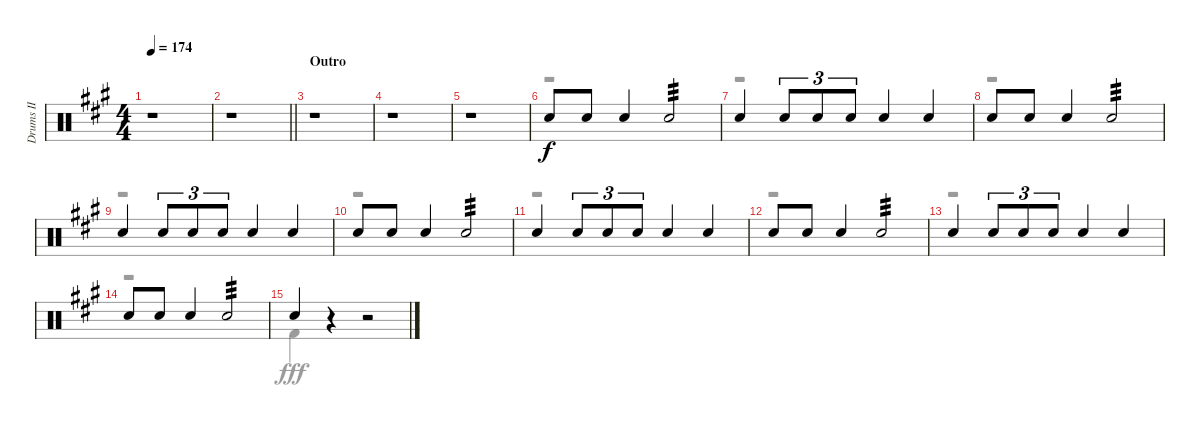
\track ("Drums II" "Drums II") {instrument percussion}
\staff {score}
\articulation defaults
\voice
\ts (4 4)
\tempo 174
\clef neutral
\ks a
r.1{dy f} |
\barLineRight lightlight
r.1 |
\section ("" "Outro")
r.1 |
r.1 |
r.1{volume 0} |
"Electric Snare (hit)".8{volume 14} "Electric Snare (hit)".8 "Electric Snare (hit)".4 "Electric Snare (hit)".2{tp 3} |
"Electric Snare (hit)".4 "Electric Snare (hit)".8{tu (3 2)} "Electric Snare (hit)".8{tu (3 2)} "Electric Snare (hit)".8{tu (3 2)} "Electric Snare (hit)".4 "Electric Snare (hit)".4 |
"Electric Snare (hit)".8 "Electric Snare (hit)".8 "Electric Snare (hit)".4 "Electric Snare (hit)".2{tp 3} |
"Electric Snare (hit)".4 "Electric Snare (hit)".8{tu (3 2)} "Electric Snare (hit)".8{tu (3 2)} "Electric Snare (hit)".8{tu (3 2)} "Electric Snare (hit)".4 "Electric Snare (hit)".4 |
"Electric Snare (hit)".8 "Electric Snare (hit)".8 "Electric Snare (hit)".4 "Electric Snare (hit)".2{tp 3} |
"Electric Snare (hit)".4 "Electric Snare (hit)".8{tu (3 2)} "Electric Snare (hit)".8{tu (3 2)} "Electric Snare (hit)".8{tu (3 2)} "Electric Snare (hit)".4 "Electric Snare (hit)".4 |
"Electric Snare (hit)".8 "Electric Snare (hit)".8 "Electric Snare (hit)".4 "Electric Snare (hit)".2{tp 3} |
"Electric Snare (hit)".4 "Electric Snare (hit)".8{tu (3 2)} "Electric Snare (hit)".8{tu (3 2)} "Electric Snare (hit)".8{tu (3 2)} "Electric Snare (hit)".4 "Electric Snare (hit)".4 |
"Electric Snare (hit)".8 "Electric Snare (hit)".8 "Electric Snare (hit)".4 "Electric Snare (hit)".2{tp 3} |
"Electric Snare (hit)".4 r.4 r.2
\voice
\clef neutral
\ottava regular
\simile none
\ks a
r.1{dy fff} |
\barLineRight lightlight
r.1 |
r.1 |
r.1 |
r.1 |
r.1 |
r.1 |
r.1 |
r.1 |
r.1 |
r.1 |
r.1 |
r.1 |
r.1 |
"Kick (hit) 2".4 r.4 r.2
